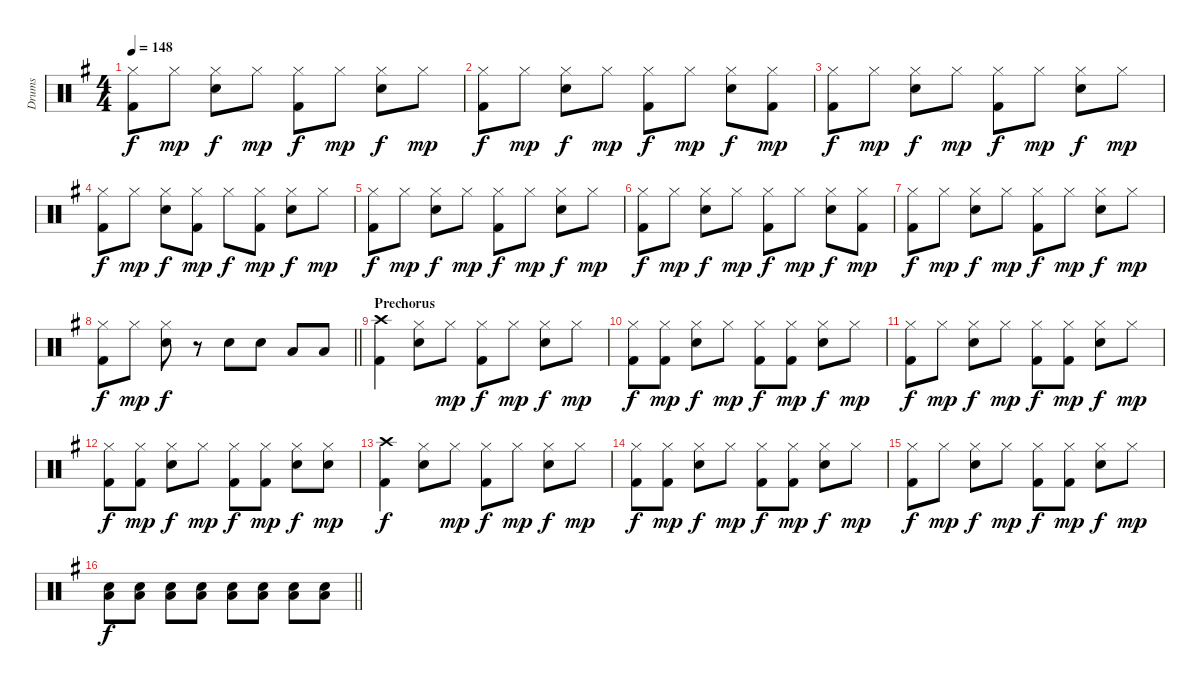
\track ("Drums" "Drums") {instrument percussion}
\staff {score}
\articulation defaults
\ts (4 4)
\tempo 148
\clef neutral
\ks g
("Hi-Hat (closed)" "Kick (hit) 2").8{dy f} "Hi-Hat (closed)".8{dy mp} ("Hi-Hat (closed)" "Electric Snare (hit)").8{dy f} "Hi-Hat (closed)".8{dy mp} ("Hi-Hat (closed)" "Kick (hit) 2").8{dy f} "Hi-Hat (closed)".8{dy mp} ("Hi-Hat (closed)" "Electric Snare (hit)").8{dy f} "Hi-Hat (closed)".8{dy mp} |
("Hi-Hat (closed)" "Kick (hit) 2").8{dy f} "Hi-Hat (closed)".8{dy mp} ("Hi-Hat (closed)" "Electric Snare (hit)").8{dy f} "Hi-Hat (closed)".8{dy mp} ("Hi-Hat (closed)" "Kick (hit) 2").8{dy f} "Hi-Hat (closed)".8{dy mp} ("Hi-Hat (closed)" "Electric Snare (hit)").8{dy f} ("Hi-Hat (closed)" "Kick (hit) 2").8{dy mp} |
("Hi-Hat (closed)" "Kick (hit) 2").8{dy f} "Hi-Hat (closed)".8{dy mp} ("Hi-Hat (closed)" "Electric Snare (hit)").8{dy f} "Hi-Hat (closed)".8{dy mp} ("Hi-Hat (closed)" "Kick (hit) 2").8{dy f} "Hi-Hat (closed)".8{dy mp} ("Hi-Hat (closed)" "Electric Snare (hit)").8{dy f} "Hi-Hat (closed)".8{dy mp} |
("Hi-Hat (closed)" "Kick (hit) 2").8{dy f} "Hi-Hat (closed)".8{dy mp} ("Hi-Hat (closed)" "Electric Snare (hit)").8{dy f} ("Hi-Hat (closed)" "Kick (hit) 2").8{dy mp} "Hi-Hat (closed)".8{dy f} ("Hi-Hat (closed)" "Kick (hit) 2").8{dy mp} ("Hi-Hat (closed)" "Electric Snare (hit)").8{dy f} "Hi-Hat (closed)".8{dy mp} |
("Hi-Hat (closed)" "Kick (hit) 2").8{dy f} "Hi-Hat (closed)".8{dy mp} ("Hi-Hat (closed)" "Electric Snare (hit)").8{dy f} "Hi-Hat (closed)".8{dy mp} ("Hi-Hat (closed)" "Kick (hit) 2").8{dy f} "Hi-Hat (closed)".8{dy mp} ("Hi-Hat (closed)" "Electric Snare (hit)").8{dy f} "Hi-Hat (closed)".8{dy mp} |
("Hi-Hat (closed)" "Kick (hit) 2").8{dy f} "Hi-Hat (closed)".8{dy mp} ("Hi-Hat (closed)" "Electric Snare (hit)").8{dy f} "Hi-Hat (closed)".8{dy mp} ("Hi-Hat (closed)" "Kick (hit) 2").8{dy f} "Hi-Hat (closed)".8{dy mp} ("Hi-Hat (closed)" "Electric Snare (hit)").8{dy f} ("Hi-Hat (closed)" "Kick (hit) 2").8{dy mp} |
("Hi-Hat (closed)" "Kick (hit) 2").8{dy f} "Hi-Hat (closed)".8{dy mp} ("Hi-Hat (closed)" "Electric Snare (hit)").8{dy f} "Hi-Hat (closed)".8{dy mp} ("Hi-Hat (closed)" "Kick (hit) 2").8{dy f} "Hi-Hat (closed)".8{dy mp} ("Hi-Hat (closed)" "Electric Snare (hit)").8{dy f} "Hi-Hat (closed)".8{dy mp} |
\barLineRight lightlight
("Hi-Hat (closed)" "Kick (hit) 2").8{dy f} "Hi-Hat (closed)".8{dy mp} ("Hi-Hat (closed)" "Electric Snare (hit)").8{dy f} r.8 "Electric Snare (hit)".8 "Electric Snare (hit)".8 "Low Tom (hit)".8 "Low Tom (hit)".8 |
\section ("" "Prechorus")
("Crash high (hit)" "Kick (hit) 2").4 ("Hi-Hat (closed)" "Electric Snare (hit)").8 "Hi-Hat (closed)".8{dy mp} ("Hi-Hat (closed)" "Kick (hit) 2").8{dy f} "Hi-Hat (closed)".8{dy mp} ("Hi-Hat (closed)" "Electric Snare (hit)").8{dy f} "Hi-Hat (closed)".8{dy mp} |
("Hi-Hat (closed)" "Kick (hit) 2").8{dy f} ("Hi-Hat (closed)" "Kick (hit) 2").8{dy mp} ("Hi-Hat (closed)" "Electric Snare (hit)").8{dy f} "Hi-Hat (closed)".8{dy mp} ("Hi-Hat (closed)" "Kick (hit) 2").8{dy f} ("Hi-Hat (closed)" "Kick (hit) 2").8{dy mp} ("Hi-Hat (closed)" "Electric Snare (hit)").8{dy f} "Hi-Hat (closed)".8{dy mp} |
("Hi-Hat (closed)" "Kick (hit) 2").8{dy f} "Hi-Hat (closed)".8{dy mp} ("Hi-Hat (closed)" "Electric Snare (hit)").8{dy f} "Hi-Hat (closed)".8{dy mp} ("Hi-Hat (closed)" "Kick (hit) 2").8{dy f} ("Hi-Hat (closed)" "Kick (hit) 2").8{dy mp} ("Hi-Hat (closed)" "Electric Snare (hit)").8{dy f} "Hi-Hat (closed)".8{dy mp} |
("Hi-Hat (closed)" "Kick (hit) 2").8{dy f} ("Hi-Hat (closed)" "Kick (hit) 2").8{dy mp} ("Hi-Hat (closed)" "Electric Snare (hit)").8{dy f} "Hi-Hat (closed)".8{dy mp} ("Hi-Hat (closed)" "Kick (hit) 2").8{dy f} ("Hi-Hat (closed)" "Kick (hit) 2").8{dy mp} ("Hi-Hat (closed)" "Electric Snare (hit)").8{dy f} ("Hi-Hat (closed)" "Electric Snare (hit)").8{dy mp} |
("Crash high (hit)" "Kick (hit) 2").4{dy f} ("Hi-Hat (closed)" "Electric Snare (hit)").8 "Hi-Hat (closed)".8{dy mp} ("Hi-Hat (closed)" "Kick (hit) 2").8{dy f} "Hi-Hat (closed)".8{dy mp} ("Hi-Hat (closed)" "Electric Snare (hit)").8{dy f} "Hi-Hat (closed)".8{dy mp} |
("Hi-Hat (closed)" "Kick (hit) 2").8{dy f} ("Hi-Hat (closed)" "Kick (hit) 2").8{dy mp} ("Hi-Hat (closed)" "Electric Snare (hit)").8{dy f} "Hi-Hat (closed)".8{dy mp} ("Hi-Hat (closed)" "Kick (hit) 2").8{dy f} ("Hi-Hat (closed)" "Kick (hit) 2").8{dy mp} ("Hi-Hat (closed)" "Electric Snare (hit)").8{dy f} "Hi-Hat (closed)".8{dy mp} |
("Hi-Hat (closed)" "Kick (hit) 2").8{dy f} "Hi-Hat (closed)".8{dy mp} ("Hi-Hat (closed)" "Electric Snare (hit)").8{dy f} "Hi-Hat (closed)".8{dy mp} ("Hi-Hat (closed)" "Kick (hit) 2").8{dy f} ("Hi-Hat (closed)" "Kick (hit) 2").8{dy mp} ("Hi-Hat (closed)" "Electric Snare (hit)").8{dy f} "Hi-Hat (closed)".8{dy mp} |
\barLineRight lightlight
("Electric Snare (hit)" "Low Tom (hit)").8{dy f} ("Electric Snare (hit)" "Low Tom (hit)").8 ("Electric Snare (hit)" "Low Tom (hit)").8 ("Electric Snare (hit)" "Low Tom (hit)").8 ("Electric Snare (hit)" "Low Tom (hit)").8 ("Electric Snare (hit)" "Low Tom (hit)").8 ("Electric Snare (hit)" "Low Tom (hit)").8 ("Electric Snare (hit)" "Low Tom (hit)").8
